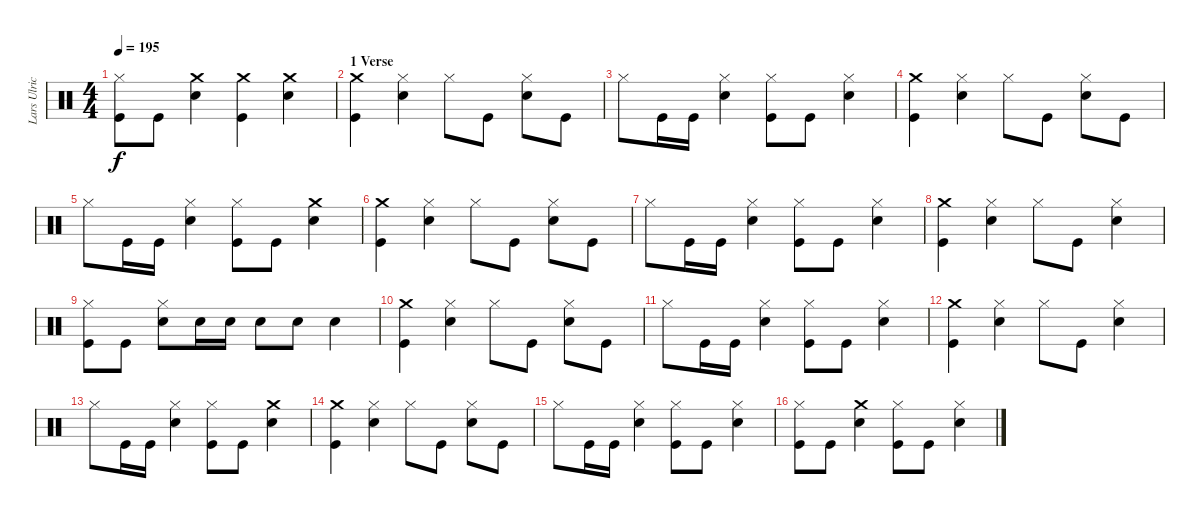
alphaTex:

\track ("Lars Ulrich (Drums)" "Lars Ulric") {instrument percussion}
\staff {score}
\articulation defaults
\ts (4 4)
\tempo 195
\clef neutral
\ks c
("Kick (hit)" "Hi-Hat (closed)").8{dy f} "Kick (hit)".8 ("Crash medium (hit)" "Snare (hit) 2").4 ("Kick (hit)" "Crash medium (hit)").4 ("Snare (hit) 2" "Crash medium (hit)").4 |
\section ("" "1 Verse")
("Kick (hit)" "Crash medium (hit)").4 ("Snare (hit) 2" "Hi-Hat (closed)").4 "Hi-Hat (closed)".8 "Kick (hit)".8 ("Snare (hit) 2" "Hi-Hat (closed)").8 "Kick (hit)".8 |
"Hi-Hat (closed)".8 "Kick (hit)".16 "Kick (hit)".16 ("Snare (hit) 2" "Hi-Hat (closed)").4 ("Kick (hit)" "Hi-Hat (closed)").8 "Kick (hit)".8 ("Snare (hit) 2" "Hi-Hat (closed)").4 |
("Kick (hit)" "Crash medium (hit)").4 ("Hi-Hat (closed)" "Snare (hit) 2").4 "Hi-Hat (closed)".8 "Kick (hit)".8 ("Snare (hit) 2" "Hi-Hat (closed)").8 "Kick (hit)".8 |
"Hi-Hat (closed)".8 "Kick (hit)".16 "Kick (hit)".16 ("Snare (hit) 2" "Hi-Hat (closed)").4 ("Kick (hit)" "Hi-Hat (closed)").8 "Kick (hit)".8 ("Crash medium (hit)" "Snare (hit) 2").4 |
("Kick (hit)" "Crash medium (hit)").4 ("Hi-Hat (closed)" "Snare (hit) 2").4 "Hi-Hat (closed)".8 "Kick (hit)".8 ("Snare (hit) 2" "Hi-Hat (closed)").8 "Kick (hit)".8 |
"Hi-Hat (closed)".8 "Kick (hit)".16 "Kick (hit)".16 ("Snare (hit) 2" "Hi-Hat (closed)").4 ("Kick (hit)" "Hi-Hat (closed)").8 "Kick (hit)".8 ("Snare (hit) 2" "Hi-Hat (closed)").4 |
("Kick (hit)" "Crash medium (hit)").4 ("Hi-Hat (closed)" "Snare (hit) 2").4 "Hi-Hat (closed)".8 "Kick (hit)".8 ("Snare (hit) 2" "Hi-Hat (closed)").4 |
("Kick (hit)" "Hi-Hat (closed)").8 "Kick (hit)".8 ("Snare (hit) 2" "Hi-Hat (closed)").8 "Snare (hit) 2".16 "Snare (hit) 2".16 "Snare (hit) 2".8 "Snare (hit) 2".8 "Snare (hit) 2".4 |
("Kick (hit)" "Crash medium (hit)").4 ("Hi-Hat (closed)" "Snare (hit) 2").4 "Hi-Hat (closed)".8 "Kick (hit)".8 ("Snare (hit) 2" "Hi-Hat (closed)").8 "Kick (hit)".8 |
"Hi-Hat (closed)".8 "Kick (hit)".16 "Kick (hit)".16 ("Snare (hit) 2" "Hi-Hat (closed)").4 ("Kick (hit)" "Hi-Hat (closed)").8 "Kick (hit)".8 ("Snare (hit) 2" "Hi-Hat (closed)").4 |
("Kick (hit)" "Crash medium (hit)").4 ("Hi-Hat (closed)" "Snare (hit) 2").4 "Hi-Hat (closed)".8 "Kick (hit)".8 ("Snare (hit) 2" "Hi-Hat (closed)").4 |
"Hi-Hat (closed)".8 "Kick (hit)".16 "Kick (hit)".16 ("Snare (hit) 2" "Hi-Hat (closed)").4 ("Kick (hit)" "Hi-Hat (closed)").8 "Kick (hit)".8 ("Crash medium (hit)" "Snare (hit) 2").4 |
("Kick (hit)" "Crash medium (hit)").4 ("Hi-Hat (closed)" "Snare (hit) 2").4 "Hi-Hat (closed)".8 "Kick (hit)".8 ("Snare (hit) 2" "Hi-Hat (closed)").8 "Kick (hit)".8 |
"Hi-Hat (closed)".8 "Kick (hit)".16 "Kick (hit)".16 ("Snare (hit) 2" "Hi-Hat (closed)").4 ("Kick (hit)" "Hi-Hat (closed)").8 "Kick (hit)".8 ("Snare (hit) 2" "Hi-Hat (closed)").4 |
("Kick (hit)" "Hi-Hat (closed)").8 "Kick (hit)".8 ("Snare (hit) 2" "Crash medium (hit)").4 ("Kick (hit)" "Hi-Hat (closed)").8 "Kick (hit)".8 ("Snare (hit) 2" "Hi-Hat (closed)").4
